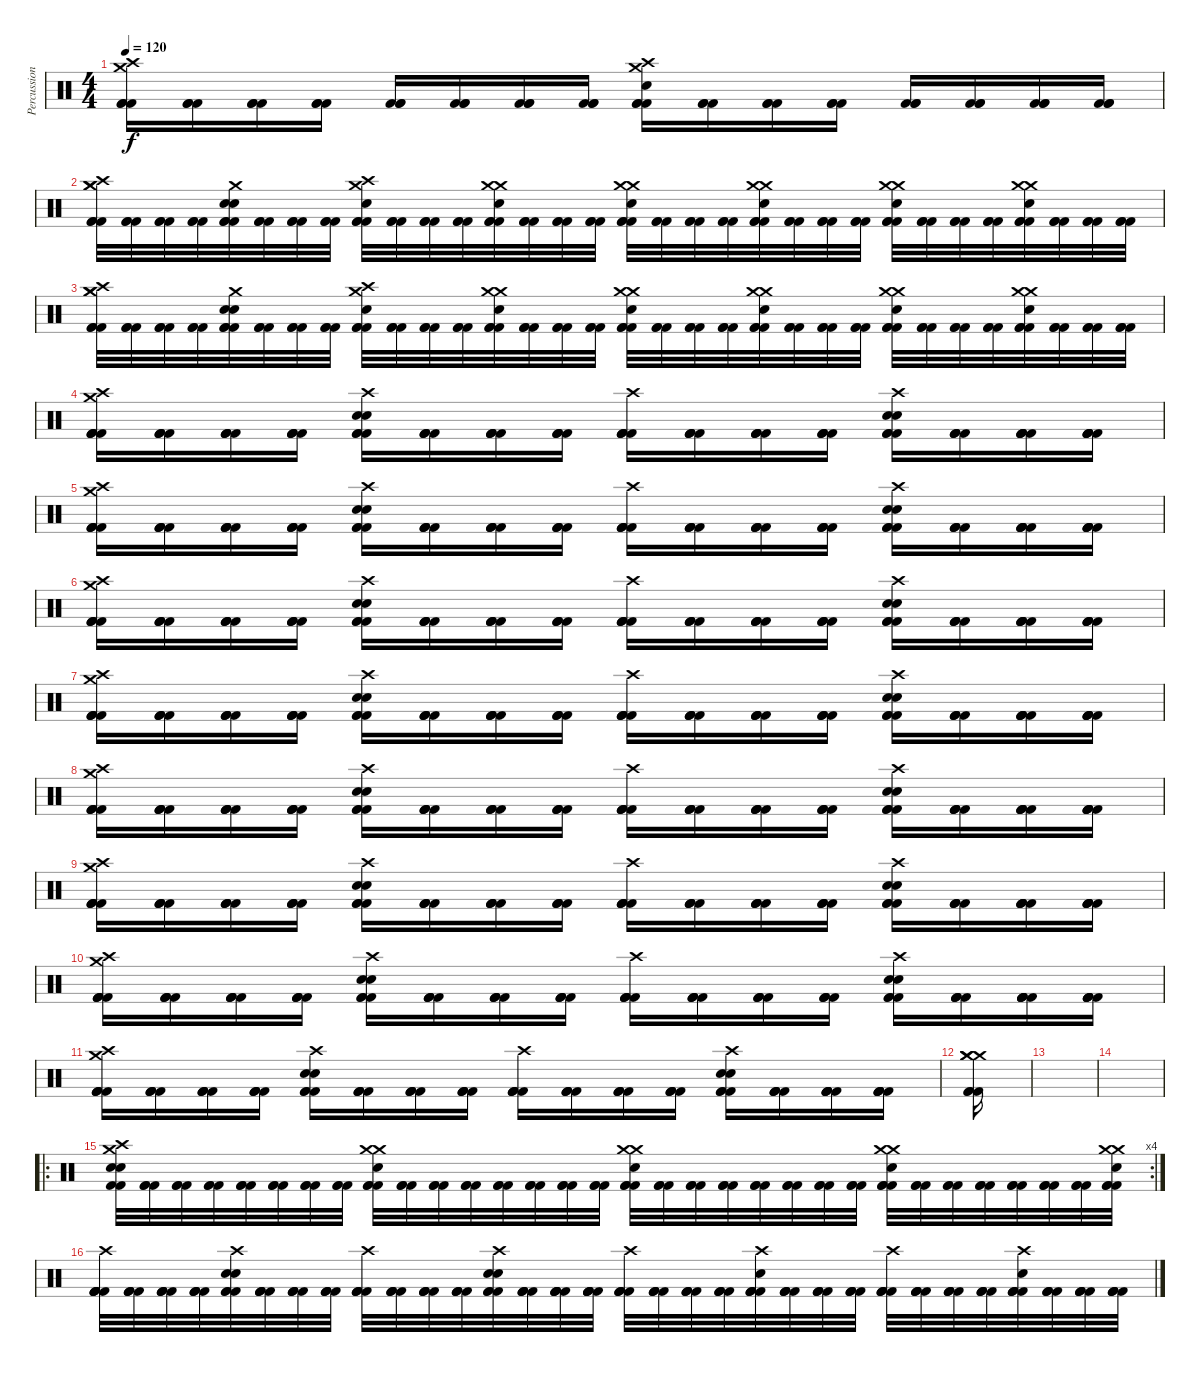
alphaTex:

\track ("Percussion" "Percussion") {instrument percussion}
\staff {score}
\articulation defaults
\ts (4 4)
\tempo 120
\clef neutral
\ks c
("Crash medium (hit)" "Crash high (hit)" "Kick (hit) 2" "Kick (hit) 2" "Kick (hit) 2").16{dy f} ("Kick (hit) 2" "Kick (hit) 2" "Kick (hit) 2").16 ("Kick (hit) 2" "Kick (hit) 2" "Kick (hit) 2").16 ("Kick (hit) 2" "Kick (hit) 2" "Kick (hit) 2").16 ("Kick (hit) 2" "Kick (hit) 2" "Kick (hit) 2").16 ("Kick (hit) 2" "Kick (hit) 2" "Kick (hit) 2").16 ("Kick (hit) 2" "Kick (hit) 2" "Kick (hit) 2").16 ("Kick (hit) 2" "Kick (hit) 2" "Kick (hit) 2").16 ("Crash medium (hit)" "Crash high (hit)" "Electric Snare (hit)" "Kick (hit) 2" "Kick (hit) 2" "Kick (hit) 2").16 ("Kick (hit) 2" "Kick (hit) 2" "Kick (hit) 2").16 ("Kick (hit) 2" "Kick (hit) 2" "Kick (hit) 2").16 ("Kick (hit) 2" "Kick (hit) 2" "Kick (hit) 2").16 ("Kick (hit) 2" "Kick (hit) 2" "Kick (hit) 2").16 ("Kick (hit) 2" "Kick (hit) 2" "Kick (hit) 2").16 ("Kick (hit) 2" "Kick (hit) 2" "Kick (hit) 2").16 ("Kick (hit) 2" "Kick (hit) 2" "Kick (hit) 2").16 |
("Crash medium (hit)" "Crash high (hit)" "Crash medium (hit)" "Kick (hit) 2" "Kick (hit) 2" "Kick (hit) 2").32 ("Kick (hit) 2" "Kick (hit) 2" "Kick (hit) 2").32 ("Kick (hit) 2" "Kick (hit) 2" "Kick (hit) 2").32 ("Kick (hit) 2" "Kick (hit) 2" "Kick (hit) 2").32 ("Crash medium (hit)" "Electric Snare (hit)" "Snare (hit) 2" "Kick (hit) 2" "Kick (hit) 2" "Kick (hit) 2").32 ("Kick (hit) 2" "Kick (hit) 2" "Kick (hit) 2").32 ("Kick (hit) 2" "Kick (hit) 2" "Kick (hit) 2").32 ("Kick (hit) 2" "Kick (hit) 2" "Kick (hit) 2").32 ("Crash medium (hit)" "Crash high (hit)" "Electric Snare (hit)" "Kick (hit) 2" "Kick (hit) 2" "Kick (hit) 2").32 ("Kick (hit) 2" "Kick (hit) 2" "Kick (hit) 2").32 ("Kick (hit) 2" "Kick (hit) 2" "Kick (hit) 2").32 ("Kick (hit) 2" "Kick (hit) 2" "Kick (hit) 2").32 ("Crash medium (hit)" "Electric Snare (hit)" "Crash medium (hit)" "Kick (hit) 2" "Kick (hit) 2" "Kick (hit) 2").32 ("Kick (hit) 2" "Kick (hit) 2" "Kick (hit) 2").32 ("Kick (hit) 2" "Kick (hit) 2" "Kick (hit) 2").32 ("Kick (hit) 2" "Kick (hit) 2" "Kick (hit) 2").32 ("Crash medium (hit)" "Electric Snare (hit)" "Crash medium (hit)" "Kick (hit) 2" "Kick (hit) 2" "Kick (hit) 2").32 ("Kick (hit) 2" "Kick (hit) 2" "Kick (hit) 2").32 ("Kick (hit) 2" "Kick (hit) 2" "Kick (hit) 2").32 ("Kick (hit) 2" "Kick (hit) 2" "Kick (hit) 2").32 ("Crash medium (hit)" "Electric Snare (hit)" "Crash medium (hit)" "Kick (hit) 2" "Kick (hit) 2" "Kick (hit) 2").32 ("Kick (hit) 2" "Kick (hit) 2" "Kick (hit) 2").32 ("Kick (hit) 2" "Kick (hit) 2" "Kick (hit) 2").32 ("Kick (hit) 2" "Kick (hit) 2" "Kick (hit) 2").32 ("Crash medium (hit)" "Electric Snare (hit)" "Crash medium (hit)" "Kick (hit) 2" "Kick (hit) 2" "Kick (hit) 2").32 ("Kick (hit) 2" "Kick (hit) 2" "Kick (hit) 2").32 ("Kick (hit) 2" "Kick (hit) 2" "Kick (hit) 2").32 ("Kick (hit) 2" "Kick (hit) 2" "Kick (hit) 2").32 ("Crash medium (hit)" "Electric Snare (hit)" "Crash medium (hit)" "Kick (hit) 2" "Kick (hit) 2" "Kick (hit) 2").32 ("Kick (hit) 2" "Kick (hit) 2" "Kick (hit) 2").32 ("Kick (hit) 2" "Kick (hit) 2" "Kick (hit) 2").32 ("Kick (hit) 2" "Kick (hit) 2" "Kick (hit) 2").32 |
("Crash medium (hit)" "Crash high (hit)" "Crash medium (hit)" "Kick (hit) 2" "Kick (hit) 2" "Kick (hit) 2").32 ("Kick (hit) 2" "Kick (hit) 2" "Kick (hit) 2").32 ("Kick (hit) 2" "Kick (hit) 2" "Kick (hit) 2").32 ("Kick (hit) 2" "Kick (hit) 2" "Kick (hit) 2").32 ("Crash medium (hit)" "Electric Snare (hit)" "Snare (hit) 2" "Kick (hit) 2" "Kick (hit) 2" "Kick (hit) 2").32 ("Kick (hit) 2" "Kick (hit) 2" "Kick (hit) 2").32 ("Kick (hit) 2" "Kick (hit) 2" "Kick (hit) 2").32 ("Kick (hit) 2" "Kick (hit) 2" "Kick (hit) 2").32 ("Crash medium (hit)" "Crash high (hit)" "Electric Snare (hit)" "Kick (hit) 2" "Kick (hit) 2" "Kick (hit) 2").32 ("Kick (hit) 2" "Kick (hit) 2" "Kick (hit) 2").32 ("Kick (hit) 2" "Kick (hit) 2" "Kick (hit) 2").32 ("Kick (hit) 2" "Kick (hit) 2" "Kick (hit) 2").32 ("Crash medium (hit)" "Electric Snare (hit)" "Crash medium (hit)" "Kick (hit) 2" "Kick (hit) 2" "Kick (hit) 2").32 ("Kick (hit) 2" "Kick (hit) 2" "Kick (hit) 2").32 ("Kick (hit) 2" "Kick (hit) 2" "Kick (hit) 2").32 ("Kick (hit) 2" "Kick (hit) 2" "Kick (hit) 2").32 ("Crash medium (hit)" "Electric Snare (hit)" "Crash medium (hit)" "Kick (hit) 2" "Kick (hit) 2" "Kick (hit) 2").32 ("Kick (hit) 2" "Kick (hit) 2" "Kick (hit) 2").32 ("Kick (hit) 2" "Kick (hit) 2" "Kick (hit) 2").32 ("Kick (hit) 2" "Kick (hit) 2" "Kick (hit) 2").32 ("Crash medium (hit)" "Electric Snare (hit)" "Crash medium (hit)" "Kick (hit) 2" "Kick (hit) 2" "Kick (hit) 2").32 ("Kick (hit) 2" "Kick (hit) 2" "Kick (hit) 2").32 ("Kick (hit) 2" "Kick (hit) 2" "Kick (hit) 2").32 ("Kick (hit) 2" "Kick (hit) 2" "Kick (hit) 2").32 ("Crash medium (hit)" "Electric Snare (hit)" "Crash medium (hit)" "Kick (hit) 2" "Kick (hit) 2" "Kick (hit) 2").32 ("Kick (hit) 2" "Kick (hit) 2" "Kick (hit) 2").32 ("Kick (hit) 2" "Kick (hit) 2" "Kick (hit) 2").32 ("Kick (hit) 2" "Kick (hit) 2" "Kick (hit) 2").32 ("Crash medium (hit)" "Electric Snare (hit)" "Crash medium (hit)" "Kick (hit) 2" "Kick (hit) 2" "Kick (hit) 2").32 ("Kick (hit) 2" "Kick (hit) 2" "Kick (hit) 2").32 ("Kick (hit) 2" "Kick (hit) 2" "Kick (hit) 2").32 ("Kick (hit) 2" "Kick (hit) 2" "Kick (hit) 2").32 |
("Crash medium (hit)" "Kick (hit) 2" "Crash high (hit)" "Kick (hit) 2" "Kick (hit) 2" "Kick (hit) 2").16 ("Kick (hit) 2" "Kick (hit) 2" "Kick (hit) 2" "Kick (hit) 2").16 ("Kick (hit) 2" "Kick (hit) 2" "Kick (hit) 2" "Kick (hit) 2").16 ("Kick (hit) 2" "Kick (hit) 2" "Kick (hit) 2" "Kick (hit) 2").16 ("Snare (hit) 2" "Electric Snare (hit)" "Crash high (hit)" "Kick (hit) 2" "Kick (hit) 2" "Kick (hit) 2").16 ("Kick (hit) 2" "Kick (hit) 2" "Kick (hit) 2" "Kick (hit) 2").16 ("Kick (hit) 2" "Kick (hit) 2" "Kick (hit) 2" "Kick (hit) 2").16 ("Kick (hit) 2" "Kick (hit) 2" "Kick (hit) 2" "Kick (hit) 2").16 ("Kick (hit) 2" "Crash high (hit)" "Kick (hit) 2" "Kick (hit) 2" "Kick (hit) 2").16 ("Kick (hit) 2" "Kick (hit) 2" "Kick (hit) 2" "Kick (hit) 2").16 ("Kick (hit) 2" "Kick (hit) 2" "Kick (hit) 2" "Kick (hit) 2").16 ("Kick (hit) 2" "Kick (hit) 2" "Kick (hit) 2" "Kick (hit) 2").16 ("Snare (hit) 2" "Electric Snare (hit)" "Crash high (hit)" "Kick (hit) 2" "Kick (hit) 2" "Kick (hit) 2").16 ("Kick (hit) 2" "Kick (hit) 2" "Kick (hit) 2" "Kick (hit) 2").16 ("Kick (hit) 2" "Kick (hit) 2" "Kick (hit) 2" "Kick (hit) 2" "Kick (hit) 2").16 ("Kick (hit) 2" "Kick (hit) 2" "Kick (hit) 2" "Kick (hit) 2" "Kick (hit) 2").16 |
("Crash medium (hit)" "Kick (hit) 2" "Crash high (hit)" "Kick (hit) 2" "Kick (hit) 2" "Kick (hit) 2").16 ("Kick (hit) 2" "Kick (hit) 2" "Kick (hit) 2" "Kick (hit) 2").16 ("Kick (hit) 2" "Kick (hit) 2" "Kick (hit) 2" "Kick (hit) 2").16 ("Kick (hit) 2" "Kick (hit) 2" "Kick (hit) 2" "Kick (hit) 2").16 ("Snare (hit) 2" "Electric Snare (hit)" "Crash high (hit)" "Kick (hit) 2" "Kick (hit) 2" "Kick (hit) 2").16 ("Kick (hit) 2" "Kick (hit) 2" "Kick (hit) 2" "Kick (hit) 2").16 ("Kick (hit) 2" "Kick (hit) 2" "Kick (hit) 2" "Kick (hit) 2").16 ("Kick (hit) 2" "Kick (hit) 2" "Kick (hit) 2" "Kick (hit) 2").16 ("Kick (hit) 2" "Crash high (hit)" "Kick (hit) 2" "Kick (hit) 2" "Kick (hit) 2").16 ("Kick (hit) 2" "Kick (hit) 2" "Kick (hit) 2" "Kick (hit) 2").16 ("Kick (hit) 2" "Kick (hit) 2" "Kick (hit) 2" "Kick (hit) 2").16 ("Kick (hit) 2" "Kick (hit) 2" "Kick (hit) 2" "Kick (hit) 2").16 ("Snare (hit) 2" "Electric Snare (hit)" "Crash high (hit)" "Kick (hit) 2" "Kick (hit) 2" "Kick (hit) 2").16 ("Kick (hit) 2" "Kick (hit) 2" "Kick (hit) 2" "Kick (hit) 2").16 ("Kick (hit) 2" "Kick (hit) 2" "Kick (hit) 2" "Kick (hit) 2" "Kick (hit) 2").16 ("Kick (hit) 2" "Kick (hit) 2" "Kick (hit) 2" "Kick (hit) 2" "Kick (hit) 2").16 |
("Crash medium (hit)" "Kick (hit) 2" "Crash high (hit)" "Kick (hit) 2" "Kick (hit) 2" "Kick (hit) 2").16 ("Kick (hit) 2" "Kick (hit) 2" "Kick (hit) 2" "Kick (hit) 2").16 ("Kick (hit) 2" "Kick (hit) 2" "Kick (hit) 2" "Kick (hit) 2").16 ("Kick (hit) 2" "Kick (hit) 2" "Kick (hit) 2" "Kick (hit) 2").16 ("Snare (hit) 2" "Electric Snare (hit)" "Crash high (hit)" "Kick (hit) 2" "Kick (hit) 2" "Kick (hit) 2").16 ("Kick (hit) 2" "Kick (hit) 2" "Kick (hit) 2" "Kick (hit) 2").16 ("Kick (hit) 2" "Kick (hit) 2" "Kick (hit) 2" "Kick (hit) 2").16 ("Kick (hit) 2" "Kick (hit) 2" "Kick (hit) 2" "Kick (hit) 2").16 ("Kick (hit) 2" "Crash high (hit)" "Kick (hit) 2" "Kick (hit) 2" "Kick (hit) 2").16 ("Kick (hit) 2" "Kick (hit) 2" "Kick (hit) 2" "Kick (hit) 2").16 ("Kick (hit) 2" "Kick (hit) 2" "Kick (hit) 2" "Kick (hit) 2").16 ("Kick (hit) 2" "Kick (hit) 2" "Kick (hit) 2" "Kick (hit) 2").16 ("Snare (hit) 2" "Electric Snare (hit)" "Crash high (hit)" "Kick (hit) 2" "Kick (hit) 2" "Kick (hit) 2").16 ("Kick (hit) 2" "Kick (hit) 2" "Kick (hit) 2" "Kick (hit) 2").16 ("Kick (hit) 2" "Kick (hit) 2" "Kick (hit) 2" "Kick (hit) 2" "Kick (hit) 2").16 ("Kick (hit) 2" "Kick (hit) 2" "Kick (hit) 2" "Kick (hit) 2" "Kick (hit) 2").16 |
("Crash medium (hit)" "Kick (hit) 2" "Crash high (hit)" "Kick (hit) 2" "Kick (hit) 2" "Kick (hit) 2").16 ("Kick (hit) 2" "Kick (hit) 2" "Kick (hit) 2" "Kick (hit) 2").16 ("Kick (hit) 2" "Kick (hit) 2" "Kick (hit) 2" "Kick (hit) 2").16 ("Kick (hit) 2" "Kick (hit) 2" "Kick (hit) 2" "Kick (hit) 2").16 ("Snare (hit) 2" "Electric Snare (hit)" "Crash high (hit)" "Kick (hit) 2" "Kick (hit) 2" "Kick (hit) 2").16 ("Kick (hit) 2" "Kick (hit) 2" "Kick (hit) 2" "Kick (hit) 2").16 ("Kick (hit) 2" "Kick (hit) 2" "Kick (hit) 2" "Kick (hit) 2").16 ("Kick (hit) 2" "Kick (hit) 2" "Kick (hit) 2" "Kick (hit) 2").16 ("Kick (hit) 2" "Crash high (hit)" "Kick (hit) 2" "Kick (hit) 2" "Kick (hit) 2").16 ("Kick (hit) 2" "Kick (hit) 2" "Kick (hit) 2" "Kick (hit) 2").16 ("Kick (hit) 2" "Kick (hit) 2" "Kick (hit) 2" "Kick (hit) 2").16 ("Kick (hit) 2" "Kick (hit) 2" "Kick (hit) 2" "Kick (hit) 2").16 ("Snare (hit) 2" "Electric Snare (hit)" "Crash high (hit)" "Kick (hit) 2" "Kick (hit) 2" "Kick (hit) 2").16 ("Kick (hit) 2" "Kick (hit) 2" "Kick (hit) 2" "Kick (hit) 2").16 ("Kick (hit) 2" "Kick (hit) 2" "Kick (hit) 2" "Kick (hit) 2" "Kick (hit) 2").16 ("Kick (hit) 2" "Kick (hit) 2" "Kick (hit) 2" "Kick (hit) 2" "Kick (hit) 2").16 |
("Crash medium (hit)" "Kick (hit) 2" "Crash high (hit)" "Kick (hit) 2" "Kick (hit) 2" "Kick (hit) 2").16 ("Kick (hit) 2" "Kick (hit) 2" "Kick (hit) 2" "Kick (hit) 2").16 ("Kick (hit) 2" "Kick (hit) 2" "Kick (hit) 2" "Kick (hit) 2").16 ("Kick (hit) 2" "Kick (hit) 2" "Kick (hit) 2" "Kick (hit) 2").16 ("Snare (hit) 2" "Electric Snare (hit)" "Crash high (hit)" "Kick (hit) 2" "Kick (hit) 2" "Kick (hit) 2").16 ("Kick (hit) 2" "Kick (hit) 2" "Kick (hit) 2" "Kick (hit) 2").16 ("Kick (hit) 2" "Kick (hit) 2" "Kick (hit) 2" "Kick (hit) 2").16 ("Kick (hit) 2" "Kick (hit) 2" "Kick (hit) 2" "Kick (hit) 2").16 ("Kick (hit) 2" "Crash high (hit)" "Kick (hit) 2" "Kick (hit) 2" "Kick (hit) 2").16 ("Kick (hit) 2" "Kick (hit) 2" "Kick (hit) 2" "Kick (hit) 2").16 ("Kick (hit) 2" "Kick (hit) 2" "Kick (hit) 2" "Kick (hit) 2").16 ("Kick (hit) 2" "Kick (hit) 2" "Kick (hit) 2" "Kick (hit) 2").16 ("Snare (hit) 2" "Electric Snare (hit)" "Crash high (hit)" "Kick (hit) 2" "Kick (hit) 2" "Kick (hit) 2").16 ("Kick (hit) 2" "Kick (hit) 2" "Kick (hit) 2" "Kick (hit) 2").16 ("Kick (hit) 2" "Kick (hit) 2" "Kick (hit) 2" "Kick (hit) 2" "Kick (hit) 2").16 ("Kick (hit) 2" "Kick (hit) 2" "Kick (hit) 2" "Kick (hit) 2" "Kick (hit) 2").16 |
("Crash medium (hit)" "Kick (hit) 2" "Crash high (hit)" "Kick (hit) 2" "Kick (hit) 2" "Kick (hit) 2").16 ("Kick (hit) 2" "Kick (hit) 2" "Kick (hit) 2" "Kick (hit) 2").16 ("Kick (hit) 2" "Kick (hit) 2" "Kick (hit) 2" "Kick (hit) 2").16 ("Kick (hit) 2" "Kick (hit) 2" "Kick (hit) 2" "Kick (hit) 2").16 ("Snare (hit) 2" "Electric Snare (hit)" "Crash high (hit)" "Kick (hit) 2" "Kick (hit) 2" "Kick (hit) 2").16 ("Kick (hit) 2" "Kick (hit) 2" "Kick (hit) 2" "Kick (hit) 2").16 ("Kick (hit) 2" "Kick (hit) 2" "Kick (hit) 2" "Kick (hit) 2").16 ("Kick (hit) 2" "Kick (hit) 2" "Kick (hit) 2" "Kick (hit) 2").16 ("Kick (hit) 2" "Crash high (hit)" "Kick (hit) 2" "Kick (hit) 2" "Kick (hit) 2").16 ("Kick (hit) 2" "Kick (hit) 2" "Kick (hit) 2" "Kick (hit) 2").16 ("Kick (hit) 2" "Kick (hit) 2" "Kick (hit) 2" "Kick (hit) 2").16 ("Kick (hit) 2" "Kick (hit) 2" "Kick (hit) 2" "Kick (hit) 2").16 ("Snare (hit) 2" "Electric Snare (hit)" "Crash high (hit)" "Kick (hit) 2" "Kick (hit) 2" "Kick (hit) 2").16 ("Kick (hit) 2" "Kick (hit) 2" "Kick (hit) 2" "Kick (hit) 2").16 ("Kick (hit) 2" "Kick (hit) 2" "Kick (hit) 2" "Kick (hit) 2" "Kick (hit) 2").16 ("Kick (hit) 2" "Kick (hit) 2" "Kick (hit) 2" "Kick (hit) 2" "Kick (hit) 2").16 |
("Crash medium (hit)" "Kick (hit) 2" "Crash high (hit)" "Kick (hit) 2" "Kick (hit) 2" "Kick (hit) 2").16 ("Kick (hit) 2" "Kick (hit) 2" "Kick (hit) 2" "Kick (hit) 2").16 ("Kick (hit) 2" "Kick (hit) 2" "Kick (hit) 2" "Kick (hit) 2").16 ("Kick (hit) 2" "Kick (hit) 2" "Kick (hit) 2" "Kick (hit) 2").16 ("Snare (hit) 2" "Electric Snare (hit)" "Crash high (hit)" "Kick (hit) 2" "Kick (hit) 2" "Kick (hit) 2").16 ("Kick (hit) 2" "Kick (hit) 2" "Kick (hit) 2" "Kick (hit) 2").16 ("Kick (hit) 2" "Kick (hit) 2" "Kick (hit) 2" "Kick (hit) 2").16 ("Kick (hit) 2" "Kick (hit) 2" "Kick (hit) 2" "Kick (hit) 2").16 ("Kick (hit) 2" "Crash high (hit)" "Kick (hit) 2" "Kick (hit) 2" "Kick (hit) 2").16 ("Kick (hit) 2" "Kick (hit) 2" "Kick (hit) 2" "Kick (hit) 2").16 ("Kick (hit) 2" "Kick (hit) 2" "Kick (hit) 2" "Kick (hit) 2").16 ("Kick (hit) 2" "Kick (hit) 2" "Kick (hit) 2" "Kick (hit) 2").16 ("Snare (hit) 2" "Electric Snare (hit)" "Crash high (hit)" "Kick (hit) 2" "Kick (hit) 2" "Kick (hit) 2").16 ("Kick (hit) 2" "Kick (hit) 2" "Kick (hit) 2" "Kick (hit) 2").16 ("Kick (hit) 2" "Kick (hit) 2" "Kick (hit) 2" "Kick (hit) 2" "Kick (hit) 2").16 ("Kick (hit) 2" "Kick (hit) 2" "Kick (hit) 2" "Kick (hit) 2" "Kick (hit) 2").16 |
("Crash medium (hit)" "Kick (hit) 2" "Crash high (hit)" "Kick (hit) 2" "Kick (hit) 2" "Kick (hit) 2").16 ("Kick (hit) 2" "Kick (hit) 2" "Kick (hit) 2" "Kick (hit) 2").16 ("Kick (hit) 2" "Kick (hit) 2" "Kick (hit) 2" "Kick (hit) 2").16 ("Kick (hit) 2" "Kick (hit) 2" "Kick (hit) 2" "Kick (hit) 2").16 ("Snare (hit) 2" "Electric Snare (hit)" "Crash high (hit)" "Kick (hit) 2" "Kick (hit) 2" "Kick (hit) 2").16 ("Kick (hit) 2" "Kick (hit) 2" "Kick (hit) 2" "Kick (hit) 2").16 ("Kick (hit) 2" "Kick (hit) 2" "Kick (hit) 2" "Kick (hit) 2").16 ("Kick (hit) 2" "Kick (hit) 2" "Kick (hit) 2" "Kick (hit) 2").16 ("Kick (hit) 2" "Crash high (hit)" "Kick (hit) 2" "Kick (hit) 2" "Kick (hit) 2").16 ("Kick (hit) 2" "Kick (hit) 2" "Kick (hit) 2" "Kick (hit) 2").16 ("Kick (hit) 2" "Kick (hit) 2" "Kick (hit) 2" "Kick (hit) 2").16 ("Kick (hit) 2" "Kick (hit) 2" "Kick (hit) 2" "Kick (hit) 2").16 ("Snare (hit) 2" "Electric Snare (hit)" "Crash high (hit)" "Kick (hit) 2" "Kick (hit) 2" "Kick (hit) 2").16 ("Kick (hit) 2" "Kick (hit) 2" "Kick (hit) 2" "Kick (hit) 2").16 ("Kick (hit) 2" "Kick (hit) 2" "Kick (hit) 2" "Kick (hit) 2" "Kick (hit) 2").16 ("Kick (hit) 2" "Kick (hit) 2" "Kick (hit) 2" "Kick (hit) 2" "Kick (hit) 2").16 |
("Crash medium (hit)" "Crash medium (hit)" "Crash medium (hit)" "Kick (hit) 2" "Kick (hit) 2" "Kick (hit) 2").16 |
|
|
\ro
\rc 4
("Crash medium (hit)" "Crash high (hit)" "Electric Snare (hit)" "Snare (hit) 2" "Kick (hit) 2" "Kick (hit) 2").32 ("Kick (hit) 2" "Kick (hit) 2" "Kick (hit) 2").32 ("Kick (hit) 2" "Kick (hit) 2" "Kick (hit) 2").32 ("Kick (hit) 2" "Kick (hit) 2" "Kick (hit) 2").32 ("Kick (hit) 2" "Kick (hit) 2" "Kick (hit) 2").32 ("Kick (hit) 2" "Kick (hit) 2" "Kick (hit) 2").32 ("Kick (hit) 2" "Kick (hit) 2" "Kick (hit) 2").32 ("Kick (hit) 2" "Kick (hit) 2" "Kick (hit) 2").32 ("Crash medium (hit)" "Electric Snare (hit)" "Crash medium (hit)" "Kick (hit) 2" "Kick (hit) 2" "Kick (hit) 2").32 ("Kick (hit) 2" "Kick (hit) 2" "Kick (hit) 2").32 ("Kick (hit) 2" "Kick (hit) 2" "Kick (hit) 2").32 ("Kick (hit) 2" "Kick (hit) 2" "Kick (hit) 2").32 ("Kick (hit) 2" "Kick (hit) 2" "Kick (hit) 2").32 ("Kick (hit) 2" "Kick (hit) 2" "Kick (hit) 2").32 ("Kick (hit) 2" "Kick (hit) 2" "Kick (hit) 2").32 ("Kick (hit) 2" "Kick (hit) 2" "Kick (hit) 2").32 ("Crash medium (hit)" "Electric Snare (hit)" "Crash medium (hit)" "Kick (hit) 2" "Kick (hit) 2" "Kick (hit) 2").32 ("Kick (hit) 2" "Kick (hit) 2" "Kick (hit) 2").32 ("Kick (hit) 2" "Kick (hit) 2" "Kick (hit) 2").32 ("Kick (hit) 2" "Kick (hit) 2" "Kick (hit) 2").32 ("Kick (hit) 2" "Kick (hit) 2" "Kick (hit) 2").32 ("Kick (hit) 2" "Kick (hit) 2" "Kick (hit) 2").32 ("Kick (hit) 2" "Kick (hit) 2" "Kick (hit) 2").32 ("Kick (hit) 2" "Kick (hit) 2" "Kick (hit) 2").32 ("Crash medium (hit)" "Electric Snare (hit)" "Crash medium (hit)" "Kick (hit) 2" "Kick (hit) 2" "Kick (hit) 2").32 ("Kick (hit) 2" "Kick (hit) 2" "Kick (hit) 2").32 ("Kick (hit) 2" "Kick (hit) 2" "Kick (hit) 2").32 ("Kick (hit) 2" "Kick (hit) 2" "Kick (hit) 2").32 ("Kick (hit) 2" "Kick (hit) 2" "Kick (hit) 2").32 ("Kick (hit) 2" "Kick (hit) 2" "Kick (hit) 2").32 ("Kick (hit) 2" "Kick (hit) 2" "Kick (hit) 2").32 ("Crash medium (hit)" "Electric Snare (hit)" "Crash medium (hit)" "Kick (hit) 2" "Kick (hit) 2" "Kick (hit) 2").32 |
("Kick (hit) 2" "Kick (hit) 2" "Crash high (hit)" "Kick (hit) 2" "Kick (hit) 2" "Kick (hit) 2").32 ("Kick (hit) 2" "Kick (hit) 2" "Kick (hit) 2" "Kick (hit) 2").32 ("Kick (hit) 2" "Kick (hit) 2" "Kick (hit) 2" "Kick (hit) 2").32 ("Kick (hit) 2" "Kick (hit) 2" "Kick (hit) 2" "Kick (hit) 2").32 ("Snare (hit) 2" "Electric Snare (hit)" "Crash high (hit)" "Kick (hit) 2" "Kick (hit) 2" "Kick (hit) 2").32 ("Kick (hit) 2" "Kick (hit) 2" "Kick (hit) 2" "Kick (hit) 2").32 ("Kick (hit) 2" "Kick (hit) 2" "Kick (hit) 2" "Kick (hit) 2").32 ("Kick (hit) 2" "Kick (hit) 2" "Kick (hit) 2" "Kick (hit) 2").32 ("Kick (hit) 2" "Crash high (hit)" "Kick (hit) 2" "Kick (hit) 2" "Kick (hit) 2").32 ("Kick (hit) 2" "Kick (hit) 2" "Kick (hit) 2" "Kick (hit) 2").32 ("Kick (hit) 2" "Kick (hit) 2" "Kick (hit) 2" "Kick (hit) 2").32 ("Kick (hit) 2" "Kick (hit) 2" "Kick (hit) 2" "Kick (hit) 2").32 ("Snare (hit) 2" "Electric Snare (hit)" "Crash high (hit)" "Kick (hit) 2" "Kick (hit) 2" "Kick (hit) 2").32 ("Kick (hit) 2" "Kick (hit) 2" "Kick (hit) 2" "Kick (hit) 2").32 ("Kick (hit) 2" "Kick (hit) 2" "Kick (hit) 2" "Kick (hit) 2" "Kick (hit) 2").32 ("Kick (hit) 2" "Kick (hit) 2" "Kick (hit) 2" "Kick (hit) 2" "Kick (hit) 2").32 ("Kick (hit) 2" "Crash high (hit)" "Kick (hit) 2" "Kick (hit) 2" "Kick (hit) 2").32 ("Kick (hit) 2" "Kick (hit) 2" "Kick (hit) 2" "Kick (hit) 2").32 ("Kick (hit) 2" "Kick (hit) 2" "Kick (hit) 2" "Kick (hit) 2").32 ("Kick (hit) 2" "Kick (hit) 2" "Kick (hit) 2" "Kick (hit) 2").32 ("Kick (hit) 2" "Electric Snare (hit)" "Crash high (hit)" "Kick (hit) 2" "Kick (hit) 2" "Kick (hit) 2").32 ("Kick (hit) 2" "Kick (hit) 2" "Kick (hit) 2" "Kick (hit) 2").32 ("Kick (hit) 2" "Kick (hit) 2" "Kick (hit) 2" "Kick (hit) 2").32 ("Kick (hit) 2" "Kick (hit) 2" "Kick (hit) 2" "Kick (hit) 2").32 ("Kick (hit) 2" "Crash high (hit)" "Kick (hit) 2" "Kick (hit) 2" "Kick (hit) 2").32 ("Kick (hit) 2" "Kick (hit) 2" "Kick (hit) 2" "Kick (hit) 2").32 ("Kick (hit) 2" "Kick (hit) 2" "Kick (hit) 2" "Kick (hit) 2").32 ("Kick (hit) 2" "Kick (hit) 2" "Kick (hit) 2" "Kick (hit) 2").32 ("Kick (hit) 2" "Electric Snare (hit)" "Crash high (hit)" "Kick (hit) 2" "Kick (hit) 2" "Kick (hit) 2").32 ("Kick (hit) 2" "Kick (hit) 2" "Kick (hit) 2" "Kick (hit) 2").32 ("Kick (hit) 2" "Kick (hit) 2" "Kick (hit) 2" "Kick (hit) 2").32 ("Kick (hit) 2" "Kick (hit) 2" "Kick (hit) 2" "Kick (hit) 2").32
